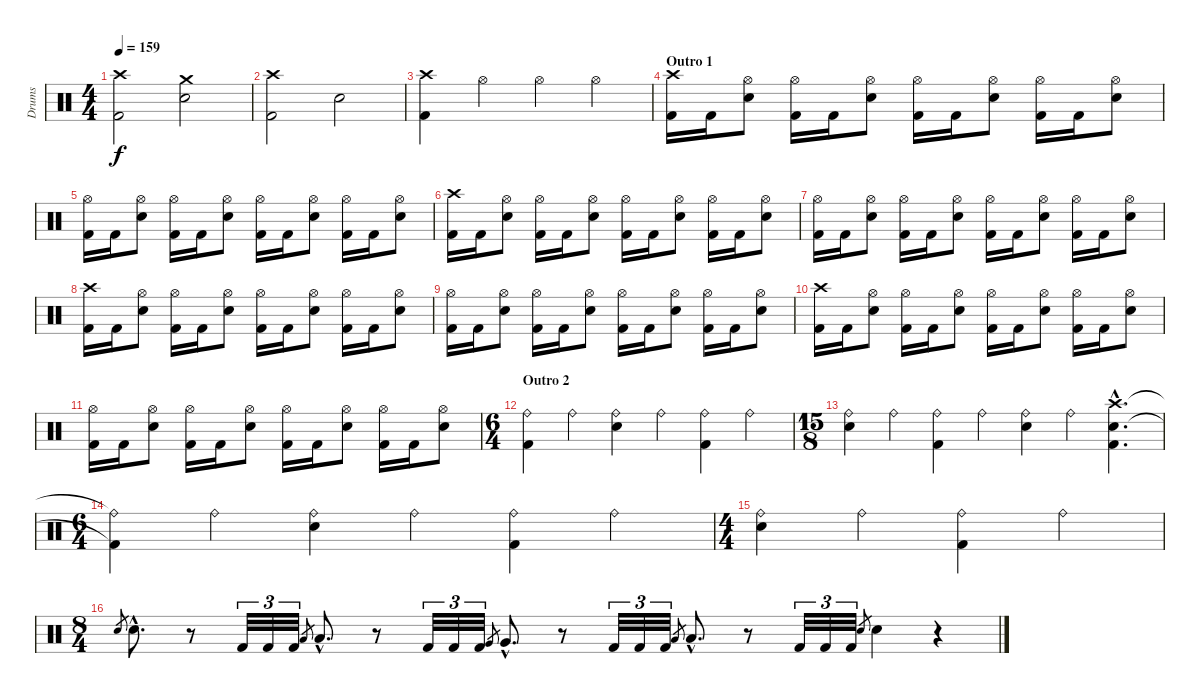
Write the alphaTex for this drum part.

\track ("Drums" "Drums") {instrument percussion}
\staff {score}
\articulation defaults
\ts (4 4)
\tempo 159
\clef neutral
\ks c
("Crash high (hit)" "Kick (hit) 2").2{dy f} ("Crash medium (hit)" "Electric Snare (hit)").2 |
("Crash high (hit)" "Kick (hit) 2").2 "Electric Snare (hit)".2 |
\section ("" "")
("Crash high (hit)" "Kick (hit) 2").4 "Hi-Hat (open)".4 "Hi-Hat (open)".4 "Hi-Hat (open)".4 |
\section ("" "Outro 1")
("Crash high (hit)" "Kick (hit) 2").16 "Kick (hit) 2".16 ("Hi-Hat (open)" "Electric Snare (hit)").8 ("Hi-Hat (open)" "Kick (hit) 2").16 "Kick (hit) 2".16 ("Hi-Hat (open)" "Electric Snare (hit)").8 ("Hi-Hat (open)" "Kick (hit) 2").16 "Kick (hit) 2".16 ("Hi-Hat (open)" "Electric Snare (hit)").8 ("Hi-Hat (open)" "Kick (hit) 2").16 "Kick (hit) 2".16 ("Hi-Hat (open)" "Electric Snare (hit)").8 |
("Hi-Hat (open)" "Kick (hit) 2").16 "Kick (hit) 2".16 ("Hi-Hat (open)" "Electric Snare (hit)").8 ("Hi-Hat (open)" "Kick (hit) 2").16 "Kick (hit) 2".16 ("Hi-Hat (open)" "Electric Snare (hit)").8 ("Hi-Hat (open)" "Kick (hit) 2").16 "Kick (hit) 2".16 ("Hi-Hat (open)" "Electric Snare (hit)").8 ("Hi-Hat (open)" "Kick (hit) 2").16 "Kick (hit) 2".16 ("Hi-Hat (open)" "Electric Snare (hit)").8 |
("Crash high (hit)" "Kick (hit) 2").16 "Kick (hit) 2".16 ("Hi-Hat (open)" "Electric Snare (hit)").8 ("Hi-Hat (open)" "Kick (hit) 2").16 "Kick (hit) 2".16 ("Hi-Hat (open)" "Electric Snare (hit)").8 ("Hi-Hat (open)" "Kick (hit) 2").16 "Kick (hit) 2".16 ("Hi-Hat (open)" "Electric Snare (hit)").8 ("Hi-Hat (open)" "Kick (hit) 2").16 "Kick (hit) 2".16 ("Hi-Hat (open)" "Electric Snare (hit)").8 |
("Hi-Hat (open)" "Kick (hit) 2").16 "Kick (hit) 2".16 ("Hi-Hat (open)" "Electric Snare (hit)").8 ("Hi-Hat (open)" "Kick (hit) 2").16 "Kick (hit) 2".16 ("Hi-Hat (open)" "Electric Snare (hit)").8 ("Hi-Hat (open)" "Kick (hit) 2").16 "Kick (hit) 2".16 ("Hi-Hat (open)" "Electric Snare (hit)").8 ("Hi-Hat (open)" "Kick (hit) 2").16 "Kick (hit) 2".16 ("Hi-Hat (open)" "Electric Snare (hit)").8 |
("Crash high (hit)" "Kick (hit) 2").16 "Kick (hit) 2".16 ("Hi-Hat (open)" "Electric Snare (hit)").8 ("Hi-Hat (open)" "Kick (hit) 2").16 "Kick (hit) 2".16 ("Hi-Hat (open)" "Electric Snare (hit)").8 ("Hi-Hat (open)" "Kick (hit) 2").16 "Kick (hit) 2".16 ("Hi-Hat (open)" "Electric Snare (hit)").8 ("Hi-Hat (open)" "Kick (hit) 2").16 "Kick (hit) 2".16 ("Hi-Hat (open)" "Electric Snare (hit)").8 |
("Hi-Hat (open)" "Kick (hit) 2").16 "Kick (hit) 2".16 ("Hi-Hat (open)" "Electric Snare (hit)").8 ("Hi-Hat (open)" "Kick (hit) 2").16 "Kick (hit) 2".16 ("Hi-Hat (open)" "Electric Snare (hit)").8 ("Hi-Hat (open)" "Kick (hit) 2").16 "Kick (hit) 2".16 ("Hi-Hat (open)" "Electric Snare (hit)").8 ("Hi-Hat (open)" "Kick (hit) 2").16 "Kick (hit) 2".16 ("Hi-Hat (open)" "Electric Snare (hit)").8 |
("Crash high (hit)" "Kick (hit) 2").16 "Kick (hit) 2".16 ("Hi-Hat (open)" "Electric Snare (hit)").8 ("Hi-Hat (open)" "Kick (hit) 2").16 "Kick (hit) 2".16 ("Hi-Hat (open)" "Electric Snare (hit)").8 ("Hi-Hat (open)" "Kick (hit) 2").16 "Kick (hit) 2".16 ("Hi-Hat (open)" "Electric Snare (hit)").8 ("Hi-Hat (open)" "Kick (hit) 2").16 "Kick (hit) 2".16 ("Hi-Hat (open)" "Electric Snare (hit)").8 |
("Hi-Hat (open)" "Kick (hit) 2").16 "Kick (hit) 2".16 ("Hi-Hat (open)" "Electric Snare (hit)").8 ("Hi-Hat (open)" "Kick (hit) 2").16 "Kick (hit) 2".16 ("Hi-Hat (open)" "Electric Snare (hit)").8 ("Hi-Hat (open)" "Kick (hit) 2").16 "Kick (hit) 2".16 ("Hi-Hat (open)" "Electric Snare (hit)").8 ("Hi-Hat (open)" "Kick (hit) 2").16 "Kick (hit) 2".16 ("Hi-Hat (open)" "Electric Snare (hit)").8 |
\ts (6 4)
\section ("" "Outro 2")
("Ride (bell)" "Kick (hit) 2").4 "Ride (bell)".4 ("Ride (bell)" "Electric Snare (hit)").4 "Ride (bell)".4 ("Ride (bell)" "Kick (hit) 2").4 "Ride (bell)".4 |
\ts (15 8)
("Ride (bell)" "Electric Snare (hit)").4 "Ride (bell)".4 ("Ride (bell)" "Kick (hit) 2").4 "Ride (bell)".4 ("Ride (bell)" "Electric Snare (hit)").4 "Ride (bell)".4 ("Crash high (hit)"{hac} "Electric Snare (hit)"{hac} "Kick (hit) 2"{hac}).4{d} |
\ts (6 4)
("Ride (bell)"{t} "Kick (hit) 2"{t}).4 "Ride (bell)".4 ("Ride (bell)" "Electric Snare (hit)").4 "Ride (bell)".4 ("Ride (bell)" "Kick (hit) 2").4 "Ride (bell)".4 |
\ts (4 4)
("Ride (bell)" "Electric Snare (hit)").4 "Ride (bell)".4 ("Ride (bell)" "Kick (hit) 2").4 "Ride (bell)".4 |
\ts (8 4)
"Electric Snare (hit)".8{gr} "Electric Snare (hit)"{hac}.8{d} r.8 "Kick (hit) 2".32{tu (3 2)} "Kick (hit) 2".32{tu (3 2)} "Kick (hit) 2".32{tu (3 2)} "Low Tom (hit)".8{gr} "Low Tom (hit)"{hac}.8{d} r.8 "Kick (hit) 2".32{tu (3 2)} "Kick (hit) 2".32{tu (3 2)} "Kick (hit) 2".32{tu (3 2)} "Very Low Tom (hit)".8{gr} "Very Low Tom (hit)"{hac}.8{d} r.8 "Kick (hit) 2".32{tu (3 2)} "Kick (hit) 2".32{tu (3 2)} "Kick (hit) 2".32{tu (3 2)} "Low Floor Tom (hit)".8{gr} "Low Floor Tom (hit)"{hac}.8{d} r.8 "Kick (hit) 2".32{tu (3 2)} "Kick (hit) 2".32{tu (3 2)} "Kick (hit) 2".32{tu (3 2)} "Electric Snare (hit)".8{gr} "Electric Snare (hit)".4 r.4
